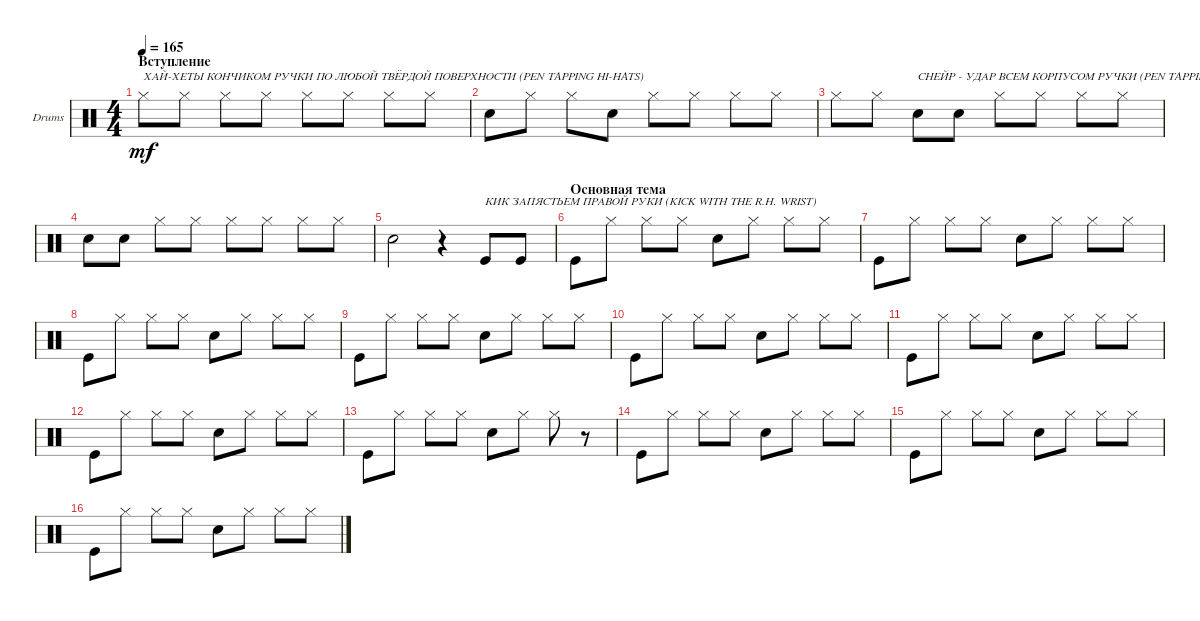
\bracketExtendMode groupsimilarinstruments
\firstSystemTrackNameOrientation horizontal
\otherSystemsTrackNameOrientation horizontal
\track ("Pen Tapping" "Drums") {instrument percussion}
\staff {score}
\articulation defaults
\ts (4 4)
\beaming (8 2 2 2 2)
\section ("" "Вступление")
\tempo 165
\clef neutral
\ks c "Hi-Hat (closed)".8{txt "ХАЙ-ХЕТЫ КОНЧИКОМ РУЧКИ ПО ЛЮБОЙ ТВЁРДОЙ ПОВЕРХНОСТИ (PEN TAPPING HI-HATS)" dy mf} "Hi-Hat (closed)".8 "Hi-Hat (closed)".8 "Hi-Hat (closed)".8 "Hi-Hat (closed)".8 "Hi-Hat (closed)".8 "Hi-Hat (closed)".8 "Hi-Hat (closed)".8
|
"Snare (hit) 2".8 "Hi-Hat (closed)".8 "Hi-Hat (closed)".8 "Snare (hit) 2".8 "Hi-Hat (closed)".8 "Hi-Hat (closed)".8 "Hi-Hat (closed)".8 "Hi-Hat (closed)".8 |
"Hi-Hat (closed)".8 "Hi-Hat (closed)".8 "Snare (hit) 2".8{txt "СНЕЙР - УДАР ВСЕМ КОРПУСОМ РУЧКИ (PEN TAPPING SNARE)"} "Snare (hit) 2".8 "Hi-Hat (closed)".8 "Hi-Hat (closed)".8 "Hi-Hat (closed)".8 "Hi-Hat (closed)".8 |
"Snare (hit) 2".8 "Snare (hit) 2".8 "Hi-Hat (closed)".8 "Hi-Hat (closed)".8 "Hi-Hat (closed)".8 "Hi-Hat (closed)".8 "Hi-Hat (closed)".8 "Hi-Hat (closed)".8 |
"Snare (hit) 2".2 r.4 "Kick (hit)".8{txt "КИК ЗАПЯСТЬЕМ ПРАВОЙ РУКИ (KICK WITH THE R.H. WRIST)"} "Kick (hit)".8 |
\section ("" "Основная тема")
\scale
0.5 "Kick (hit)".8 "Hi-Hat (closed)".8 "Hi-Hat (closed)".8 "Hi-Hat (closed)".8 "Snare (hit) 2".8 "Hi-Hat (closed)".8 "Hi-Hat (closed)".8 "Hi-Hat (closed)".8 |
\scale
0.25 "Kick (hit)".8 "Hi-Hat (closed)".8 "Hi-Hat (closed)".8 "Hi-Hat (closed)".8 "Snare (hit) 2".8 "Hi-Hat (closed)".8 "Hi-Hat (closed)".8 "Hi-Hat (closed)".8 |
\scale
0.25 "Kick (hit)".8 "Hi-Hat (closed)".8 "Hi-Hat (closed)".8 "Hi-Hat (closed)".8 "Snare (hit) 2".8 "Hi-Hat (closed)".8 "Hi-Hat (closed)".8 "Hi-Hat (closed)".8 |
\scale
0.333333 "Kick (hit)".8 "Hi-Hat (closed)".8 "Hi-Hat (closed)".8 "Hi-Hat (closed)".8 "Snare (hit) 2".8 "Hi-Hat (closed)".8 "Hi-Hat (closed)".8 "Hi-Hat (closed)".8 |
\scale
0.333333 "Kick (hit)".8 "Hi-Hat (closed)".8 "Hi-Hat (closed)".8 "Hi-Hat (closed)".8 "Snare (hit) 2".8 "Hi-Hat (closed)".8 "Hi-Hat (closed)".8 "Hi-Hat (closed)".8 |
\scale
0.333333 "Kick (hit)".8 "Hi-Hat (closed)".8 "Hi-Hat (closed)".8 "Hi-Hat (closed)".8 "Snare (hit) 2".8 "Hi-Hat (closed)".8 "Hi-Hat (closed)".8 "Hi-Hat (closed)".8 |
\scale
0.322034 "Kick (hit)".8 "Hi-Hat (closed)".8 "Hi-Hat (closed)".8 "Hi-Hat (closed)".8 "Snare (hit) 2".8 "Hi-Hat (closed)".8 "Hi-Hat (closed)".8 "Hi-Hat (closed)".8 |
\scale
0.355932 "Kick (hit)".8 "Hi-Hat (closed)".8 "Hi-Hat (closed)".8 "Hi-Hat (closed)".8 "Snare (hit) 2".8 "Hi-Hat (closed)".8 "Hi-Hat (closed)".8 r.8 |
"Kick (hit)".8 "Hi-Hat (closed)".8 "Hi-Hat (closed)".8 "Hi-Hat (closed)".8 "Snare (hit) 2".8 "Hi-Hat (closed)".8 "Hi-Hat (closed)".8 "Hi-Hat (closed)".8 |
"Kick (hit)".8 "Hi-Hat (closed)".8 "Hi-Hat (closed)".8 "Hi-Hat (closed)".8 "Snare (hit) 2".8 "Hi-Hat (closed)".8 "Hi-Hat (closed)".8 "Hi-Hat (closed)".8 |
"Kick (hit)".8 "Hi-Hat (closed)".8 "Hi-Hat (closed)".8 "Hi-Hat (closed)".8 "Snare (hit) 2".8 "Hi-Hat (closed)".8 "Hi-Hat (closed)".8 "Hi-Hat (closed)".8
